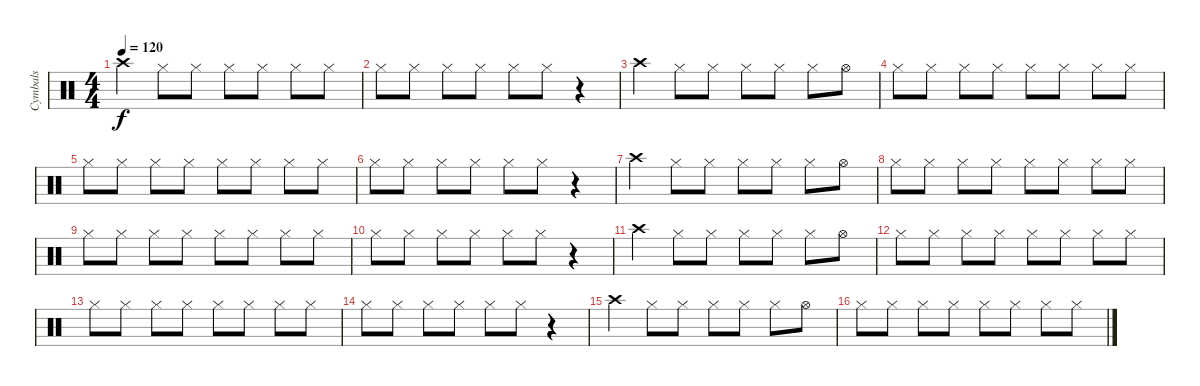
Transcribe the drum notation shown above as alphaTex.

\track ("Cymbals" "Cymbals") {instrument percussion}
\staff {score}
\articulation defaults
\ts (4 4)
\tempo 120
\clef neutral
\ks c "Crash high (hit)".4{dy f} "Hi-Hat (closed)".8 "Hi-Hat (closed)".8 "Hi-Hat (closed)".8 "Hi-Hat (closed)".8 "Hi-Hat (closed)".8 "Hi-Hat (closed)".8
|
"Hi-Hat (closed)".8 "Hi-Hat (closed)".8 "Hi-Hat (closed)".8 "Hi-Hat (closed)".8 "Hi-Hat (closed)".8 "Hi-Hat (closed)".8 r.4 |
"Crash high (hit)".4 "Hi-Hat (closed)".8 "Hi-Hat (closed)".8 "Hi-Hat (closed)".8 "Hi-Hat (closed)".8 "Hi-Hat (closed)".8 "Hi-Hat (open)".8 |
"Hi-Hat (closed)".8 "Hi-Hat (closed)".8 "Hi-Hat (closed)".8 "Hi-Hat (closed)".8 "Hi-Hat (closed)".8 "Hi-Hat (closed)".8 "Hi-Hat (closed)".8 "Hi-Hat (closed)".8 |
"Hi-Hat (closed)".8 "Hi-Hat (closed)".8 "Hi-Hat (closed)".8 "Hi-Hat (closed)".8 "Hi-Hat (closed)".8 "Hi-Hat (closed)".8 "Hi-Hat (closed)".8 "Hi-Hat (closed)".8 |
"Hi-Hat (closed)".8 "Hi-Hat (closed)".8 "Hi-Hat (closed)".8 "Hi-Hat (closed)".8 "Hi-Hat (closed)".8 "Hi-Hat (closed)".8 r.4 |
"Crash high (hit)".4 "Hi-Hat (closed)".8 "Hi-Hat (closed)".8 "Hi-Hat (closed)".8 "Hi-Hat (closed)".8 "Hi-Hat (closed)".8 "Hi-Hat (open)".8 |
"Hi-Hat (closed)".8 "Hi-Hat (closed)".8 "Hi-Hat (closed)".8 "Hi-Hat (closed)".8 "Hi-Hat (closed)".8 "Hi-Hat (closed)".8 "Hi-Hat (closed)".8 "Hi-Hat (closed)".8 |
"Hi-Hat (closed)".8 "Hi-Hat (closed)".8 "Hi-Hat (closed)".8 "Hi-Hat (closed)".8 "Hi-Hat (closed)".8 "Hi-Hat (closed)".8 "Hi-Hat (closed)".8 "Hi-Hat (closed)".8 |
"Hi-Hat (closed)".8 "Hi-Hat (closed)".8 "Hi-Hat (closed)".8 "Hi-Hat (closed)".8 "Hi-Hat (closed)".8 "Hi-Hat (closed)".8 r.4 |
"Crash high (hit)".4 "Hi-Hat (closed)".8 "Hi-Hat (closed)".8 "Hi-Hat (closed)".8 "Hi-Hat (closed)".8 "Hi-Hat (closed)".8 "Hi-Hat (open)".8 |
"Hi-Hat (closed)".8 "Hi-Hat (closed)".8 "Hi-Hat (closed)".8 "Hi-Hat (closed)".8 "Hi-Hat (closed)".8 "Hi-Hat (closed)".8 "Hi-Hat (closed)".8 "Hi-Hat (closed)".8 |
"Hi-Hat (closed)".8 "Hi-Hat (closed)".8 "Hi-Hat (closed)".8 "Hi-Hat (closed)".8 "Hi-Hat (closed)".8 "Hi-Hat (closed)".8 "Hi-Hat (closed)".8 "Hi-Hat (closed)".8 |
"Hi-Hat (closed)".8 "Hi-Hat (closed)".8 "Hi-Hat (closed)".8 "Hi-Hat (closed)".8 "Hi-Hat (closed)".8 "Hi-Hat (closed)".8 r.4 |
"Crash high (hit)".4 "Hi-Hat (closed)".8 "Hi-Hat (closed)".8 "Hi-Hat (closed)".8 "Hi-Hat (closed)".8 "Hi-Hat (closed)".8 "Hi-Hat (open)".8 |
"Hi-Hat (closed)".8 "Hi-Hat (closed)".8 "Hi-Hat (closed)".8 "Hi-Hat (closed)".8 "Hi-Hat (closed)".8 "Hi-Hat (closed)".8 "Hi-Hat (closed)".8 "Hi-Hat (closed)".8
